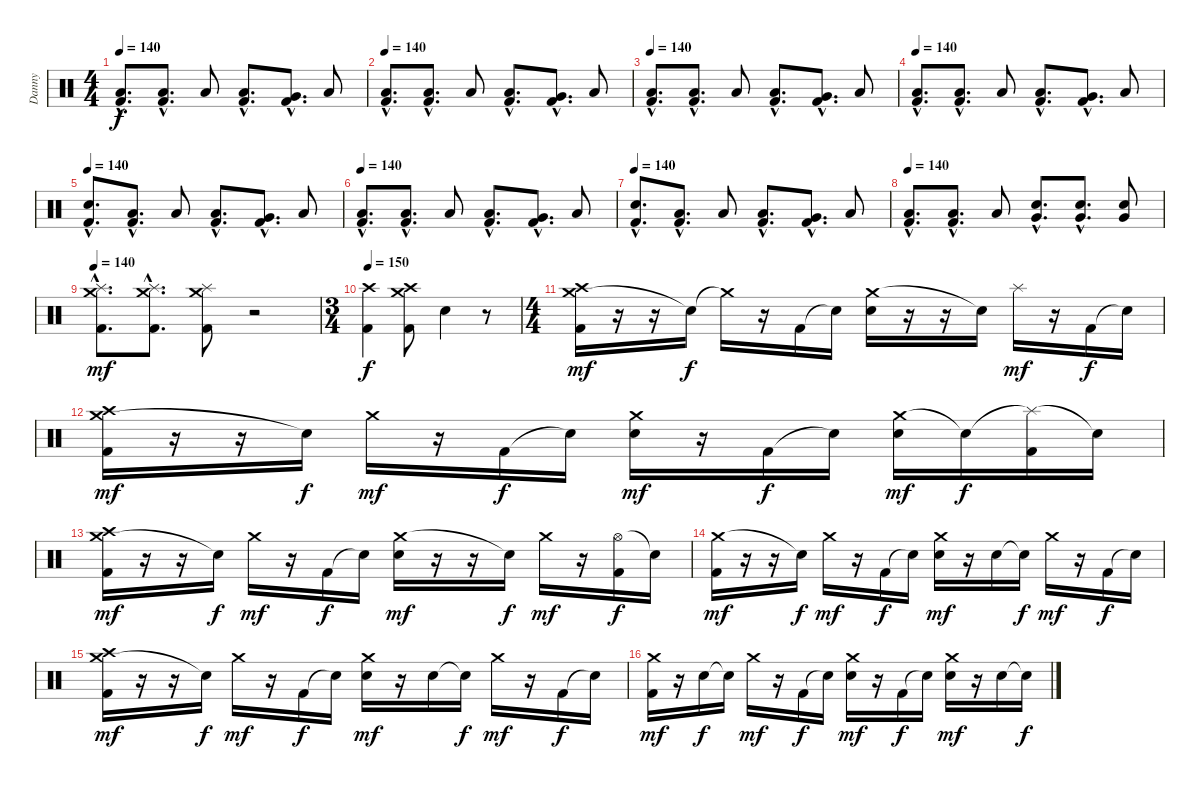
\track ("Danny" "Danny") {instrument percussion}
\staff {score}
\articulation defaults
\ts (4 4)
\tempo 140
\clef neutral
\ks c
("Low Floor Tom (hit)"{hac} "Kick (hit) 2"{hac}).8{d dy f} ("Low Floor Tom (hit)"{hac} "Kick (hit) 2"{hac}).8{d} "Low Tom (hit)".8 ("Low Floor Tom (hit)"{hac} "Kick (hit) 2"{hac}).8{d} ("Very Low Tom (hit)"{hac} "Kick (hit) 2"{hac}).8{d} "Low Tom (hit)".8 |
\tempo 140
("Low Floor Tom (hit)"{hac} "Kick (hit) 2"{hac}).8{d} ("Low Floor Tom (hit)"{hac} "Kick (hit) 2"{hac}).8{d} "Low Tom (hit)".8 ("Low Floor Tom (hit)"{hac} "Kick (hit) 2"{hac}).8{d} ("Very Low Tom (hit)"{hac} "Kick (hit) 2"{hac}).8{d} "Low Tom (hit)".8 |
\tempo 140
("Low Floor Tom (hit)"{hac} "Kick (hit) 2"{hac}).8{d} ("Low Floor Tom (hit)"{hac} "Kick (hit) 2"{hac}).8{d} "Low Tom (hit)".8 ("Low Floor Tom (hit)"{hac} "Kick (hit) 2"{hac}).8{d} ("Very Low Tom (hit)"{hac} "Kick (hit) 2"{hac}).8{d} "Low Tom (hit)".8 |
\tempo 140
("Low Floor Tom (hit)"{hac} "Kick (hit) 2"{hac}).8{d} ("Low Floor Tom (hit)"{hac} "Kick (hit) 2"{hac}).8{d} "Low Tom (hit)".8 ("Low Floor Tom (hit)"{hac} "Kick (hit) 2"{hac}).8{d} ("Very Low Tom (hit)"{hac} "Kick (hit) 2"{hac}).8{d} "Low Tom (hit)".8 |
\tempo 140
("Snare (hit) 2"{hac} "Kick (hit) 2"{hac}).8{d} ("Low Floor Tom (hit)"{hac} "Kick (hit) 2"{hac}).8{d} "Low Tom (hit)".8 ("Low Floor Tom (hit)"{hac} "Kick (hit) 2"{hac}).8{d} ("Very Low Tom (hit)"{hac} "Kick (hit) 2"{hac}).8{d} "Low Tom (hit)".8 |
\tempo 140
("Low Floor Tom (hit)"{hac} "Kick (hit) 2"{hac}).8{d} ("Low Floor Tom (hit)"{hac} "Kick (hit) 2"{hac}).8{d} "Low Tom (hit)".8 ("Low Floor Tom (hit)"{hac} "Kick (hit) 2"{hac}).8{d} ("Very Low Tom (hit)"{hac} "Kick (hit) 2"{hac}).8{d} "Low Tom (hit)".8 |
\tempo 140
("Snare (hit) 2"{hac} "Kick (hit) 2"{hac}).8{d} ("Low Floor Tom (hit)"{hac} "Kick (hit) 2"{hac}).8{d} "Low Tom (hit)".8 ("Low Floor Tom (hit)"{hac} "Kick (hit) 2"{hac}).8{d} ("Very Low Tom (hit)"{hac} "Kick (hit) 2"{hac}).8{d} "Low Tom (hit)".8 |
\tempo 140
("Low Floor Tom (hit)"{hac} "Kick (hit) 2"{hac}).8{d} ("Low Floor Tom (hit)"{hac} "Kick (hit) 2"{hac}).8{d} "Low Tom (hit)".8 ("Very Low Tom (hit)"{hac} "Snare (hit) 2"{hac}).8{d} ("Very Low Tom (hit)"{hac} "Snare (hit) 2"{hac}).8{d} ("Very Low Tom (hit)" "Snare (hit) 2").8 |
\tempo 140
("Crash medium (hit)"{hac} "Splash (hit)"{hac} "Kick (hit) 2"{hac}).8{d dy mf} ("Crash medium (hit)"{hac} "Splash (hit)"{hac} "Kick (hit) 2"{hac}).8{d} ("Crash medium (hit)" "Splash (hit)" "Kick (hit) 2").8 r.2 |
\ts (3 4)
\tempo 150
("Crash high (hit)" "Kick (hit) 2").4{dy f} ("Crash high (hit)" "Crash medium (hit)" "Kick (hit) 2").8 "Snare (hit) 2".4 r.8 |
\ts (4 4)
("Crash medium (hit)" "Crash high (hit)" "Kick (hit) 2").16{dy mf} r.16 r.16 "Snare (hit)"{t}.16{dy f} "Crash medium (hit)"{t}.16 r.16 "Kick (hit) 2".16 "Snare (hit)"{t}.16 ("Crash medium (hit)" "Snare (hit) 2").16 r.16 r.16 "Snare (hit)"{t}.16 "Splash (hit)".16{dy mf} r.16 "Kick (hit) 2".16{dy f} "Snare (hit)"{t}.16 |
("Crash medium (hit)" "Crash high (hit)" "Kick (hit) 2").16{dy mf} r.16 r.16 "Snare (hit)"{t}.16{dy f} "Crash medium (hit)".16{dy mf} r.16 "Kick (hit) 2".16{dy f} "Snare (hit)"{t}.16 ("Crash medium (hit)" "Snare (hit) 2").16{dy mf} r.16 "Kick (hit) 2".16{dy f} "Snare (hit)"{t}.16 ("Crash medium (hit)" "Snare (hit) 2").16{dy mf} "Snare (hit)"{t}.16{dy f} ("Splash (hit)"{t} "Kick (hit) 2").16 "Snare (hit)"{t}.16 |
("Crash medium (hit)" "Crash high (hit)" "Kick (hit) 2").16{dy mf} r.16 r.16 "Snare (hit)"{t}.16{dy f} "Crash medium (hit)".16{dy mf} r.16 "Kick (hit) 2".16{dy f} "Snare (hit)"{t}.16 ("Crash medium (hit)" "Snare (hit) 2").16{dy mf} r.16 r.16 "Snare (hit)"{t}.16{dy f} "Crash medium (hit)".16{dy mf} r.16 ("Hi-Hat (open)" "Kick (hit) 2").16{dy f} "Snare (hit)"{t}.16 |
("Crash medium (hit)" "Kick (hit) 2").16{dy mf} r.16 r.16 "Snare (hit)"{t}.16{dy f} "Crash medium (hit)".16{dy mf} r.16 "Kick (hit) 2".16{dy f} "Snare (hit)"{t}.16 ("Crash medium (hit)" "Snare (hit) 2").16{dy mf} r.16 "Snare (hit) 2".16 "Snare (hit)"{t}.16{dy f} "Crash medium (hit)".16{dy mf} r.16 "Kick (hit) 2".16{dy f} "Snare (hit)"{t}.16 |
("Crash medium (hit)" "Crash high (hit)" "Kick (hit) 2").16{dy mf} r.16 r.16 "Snare (hit)"{t}.16{dy f} "Crash medium (hit)".16{dy mf} r.16 "Kick (hit) 2".16{dy f} "Snare (hit)"{t}.16 ("Crash medium (hit)" "Snare (hit) 2").16{dy mf} r.16 "Snare (hit) 2".16 "Snare (hit)"{t}.16{dy f} "Crash medium (hit)".16{dy mf} r.16 "Kick (hit) 2".16{dy f} "Snare (hit)"{t}.16 |
("Crash medium (hit)" "Kick (hit) 2").16{dy mf} r.16 "Snare (hit) 2".16{dy f} "Snare (hit)"{t}.16 "Crash medium (hit)".16{dy mf} r.16 "Kick (hit) 2".16{dy f} "Snare (hit)"{t}.16 ("Crash medium (hit)" "Snare (hit) 2").16{dy mf} r.16 "Kick (hit) 2".16{dy f} "Snare (hit)"{t}.16 ("Crash medium (hit)" "Snare (hit) 2").16{dy mf} r.16 "Snare (hit) 2".16 "Snare (hit)"{t}.16{dy f}
